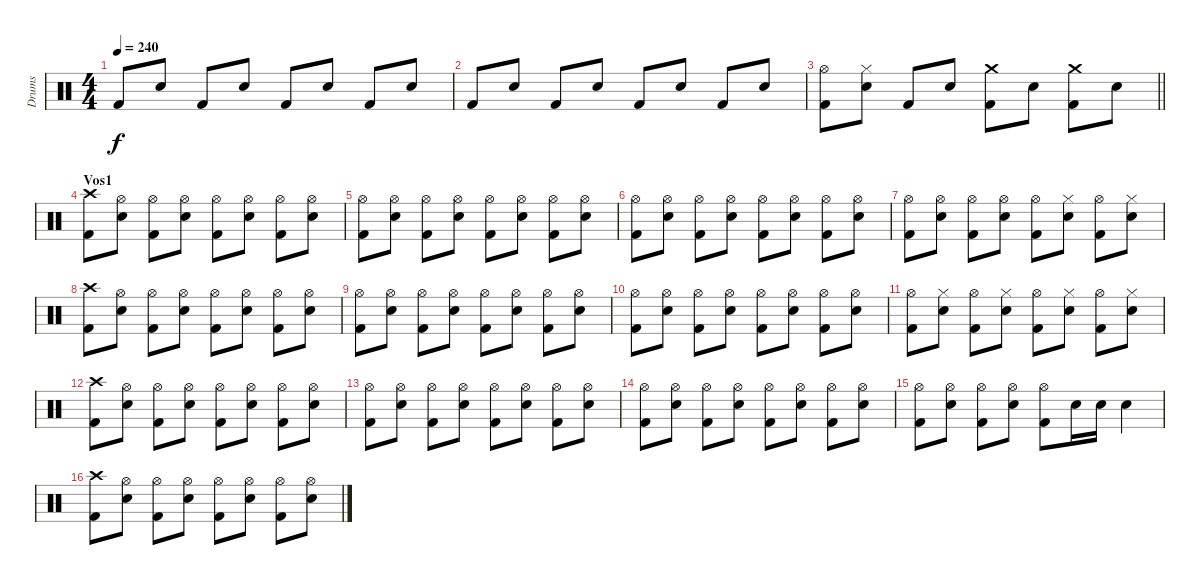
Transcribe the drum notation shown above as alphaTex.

\track ("Drums" "Drums") {instrument percussion}
\staff {score}
\articulation defaults
\ts (4 4)
\tempo 240
\clef neutral
\ks c "Kick (hit) 2".8{dy f} "Snare (hit) 2".8 "Kick (hit) 2".8 "Snare (hit) 2".8 "Kick (hit) 2".8 "Snare (hit) 2".8 "Kick (hit) 2".8 "Snare (hit) 2".8
|
"Kick (hit) 2".8 "Snare (hit) 2".8 "Kick (hit) 2".8 "Snare (hit) 2".8 "Kick (hit) 2".8 "Snare (hit) 2".8 "Kick (hit) 2".8 "Snare (hit) 2".8 |
\barLineRight lightlight
("Hi-Hat (open)" "Kick (hit) 2").8 ("Hi-Hat (closed)" "Snare (hit) 2").8 "Kick (hit) 2".8 "Snare (hit) 2".8 ("Crash medium (hit)" "Kick (hit) 2").8 "Snare (hit) 2".8 ("Crash medium (hit)" "Kick (hit) 2").8 "Snare (hit) 2".8 |
\section ("" "Vos1")
("Crash high (hit)" "Kick (hit) 2").8 ("Hi-Hat (open)" "Snare (hit) 2").8 ("Hi-Hat (open)" "Kick (hit) 2").8 ("Hi-Hat (open)" "Snare (hit) 2").8 ("Hi-Hat (open)" "Kick (hit) 2").8 ("Hi-Hat (open)" "Snare (hit) 2").8 ("Hi-Hat (open)" "Kick (hit) 2").8 ("Hi-Hat (open)" "Snare (hit) 2").8 |
("Hi-Hat (open)" "Kick (hit) 2").8 ("Hi-Hat (open)" "Snare (hit) 2").8 ("Hi-Hat (open)" "Kick (hit) 2").8 ("Hi-Hat (open)" "Snare (hit) 2").8 ("Hi-Hat (open)" "Kick (hit) 2").8 ("Hi-Hat (open)" "Snare (hit) 2").8 ("Hi-Hat (open)" "Kick (hit) 2").8 ("Hi-Hat (open)" "Snare (hit) 2").8 |
("Hi-Hat (open)" "Kick (hit) 2").8 ("Hi-Hat (open)" "Snare (hit) 2").8 ("Hi-Hat (open)" "Kick (hit) 2").8 ("Hi-Hat (open)" "Snare (hit) 2").8 ("Hi-Hat (open)" "Kick (hit) 2").8 ("Hi-Hat (open)" "Snare (hit) 2").8 ("Hi-Hat (open)" "Kick (hit) 2").8 ("Hi-Hat (open)" "Snare (hit) 2").8 |
("Hi-Hat (open)" "Kick (hit) 2").8 ("Hi-Hat (open)" "Snare (hit) 2").8 ("Hi-Hat (open)" "Kick (hit) 2").8 ("Hi-Hat (open)" "Snare (hit) 2").8 ("Hi-Hat (open)" "Kick (hit) 2").8 ("Hi-Hat (closed)" "Snare (hit) 2").8 ("Hi-Hat (open)" "Kick (hit) 2").8 ("Hi-Hat (closed)" "Snare (hit) 2").8 |
("Crash high (hit)" "Kick (hit) 2").8 ("Hi-Hat (open)" "Snare (hit) 2").8 ("Hi-Hat (open)" "Kick (hit) 2").8 ("Hi-Hat (open)" "Snare (hit) 2").8 ("Hi-Hat (open)" "Kick (hit) 2").8 ("Hi-Hat (open)" "Snare (hit) 2").8 ("Hi-Hat (open)" "Kick (hit) 2").8 ("Hi-Hat (open)" "Snare (hit) 2").8 |
("Hi-Hat (open)" "Kick (hit) 2").8 ("Hi-Hat (open)" "Snare (hit) 2").8 ("Hi-Hat (open)" "Kick (hit) 2").8 ("Hi-Hat (open)" "Snare (hit) 2").8 ("Hi-Hat (open)" "Kick (hit) 2").8 ("Hi-Hat (open)" "Snare (hit) 2").8 ("Hi-Hat (open)" "Kick (hit) 2").8 ("Hi-Hat (open)" "Snare (hit) 2").8 |
("Hi-Hat (open)" "Kick (hit) 2").8 ("Hi-Hat (open)" "Snare (hit) 2").8 ("Hi-Hat (open)" "Kick (hit) 2").8 ("Hi-Hat (open)" "Snare (hit) 2").8 ("Hi-Hat (open)" "Kick (hit) 2").8 ("Hi-Hat (open)" "Snare (hit) 2").8 ("Hi-Hat (open)" "Kick (hit) 2").8 ("Hi-Hat (open)" "Snare (hit) 2").8 |
("Hi-Hat (open)" "Kick (hit) 2").8 ("Hi-Hat (closed)" "Snare (hit) 2").8 ("Hi-Hat (open)" "Kick (hit) 2").8 ("Hi-Hat (closed)" "Snare (hit) 2").8 ("Hi-Hat (open)" "Kick (hit) 2").8 ("Hi-Hat (closed)" "Snare (hit) 2").8 ("Hi-Hat (open)" "Kick (hit) 2").8 ("Hi-Hat (closed)" "Snare (hit) 2").8 |
("Crash high (hit)" "Kick (hit) 2").8 ("Hi-Hat (open)" "Snare (hit) 2").8 ("Hi-Hat (open)" "Kick (hit) 2").8 ("Hi-Hat (open)" "Snare (hit) 2").8 ("Hi-Hat (open)" "Kick (hit) 2").8 ("Hi-Hat (open)" "Snare (hit) 2").8 ("Hi-Hat (open)" "Kick (hit) 2").8 ("Hi-Hat (open)" "Snare (hit) 2").8 |
("Hi-Hat (open)" "Kick (hit) 2").8 ("Hi-Hat (open)" "Snare (hit) 2").8 ("Hi-Hat (open)" "Kick (hit) 2").8 ("Hi-Hat (open)" "Snare (hit) 2").8 ("Hi-Hat (open)" "Kick (hit) 2").8 ("Hi-Hat (open)" "Snare (hit) 2").8 ("Hi-Hat (open)" "Kick (hit) 2").8 ("Hi-Hat (open)" "Snare (hit) 2").8 |
("Hi-Hat (open)" "Kick (hit) 2").8 ("Hi-Hat (open)" "Snare (hit) 2").8 ("Hi-Hat (open)" "Kick (hit) 2").8 ("Hi-Hat (open)" "Snare (hit) 2").8 ("Hi-Hat (open)" "Kick (hit) 2").8 ("Hi-Hat (open)" "Snare (hit) 2").8 ("Hi-Hat (open)" "Kick (hit) 2").8 ("Hi-Hat (open)" "Snare (hit) 2").8 |
("Hi-Hat (open)" "Kick (hit) 2").8 ("Hi-Hat (open)" "Snare (hit) 2").8 ("Hi-Hat (open)" "Kick (hit) 2").8 ("Hi-Hat (open)" "Snare (hit) 2").8 ("Hi-Hat (open)" "Kick (hit) 2").8 "Snare (hit) 2".16 "Snare (hit) 2".16 "Snare (hit) 2".4 |
("Crash high (hit)" "Kick (hit) 2").8 ("Hi-Hat (open)" "Snare (hit) 2").8 ("Hi-Hat (open)" "Kick (hit) 2").8 ("Hi-Hat (open)" "Snare (hit) 2").8 ("Hi-Hat (open)" "Kick (hit) 2").8 ("Hi-Hat (open)" "Snare (hit) 2").8 ("Hi-Hat (open)" "Kick (hit) 2").8 ("Hi-Hat (open)" "Snare (hit) 2").8
